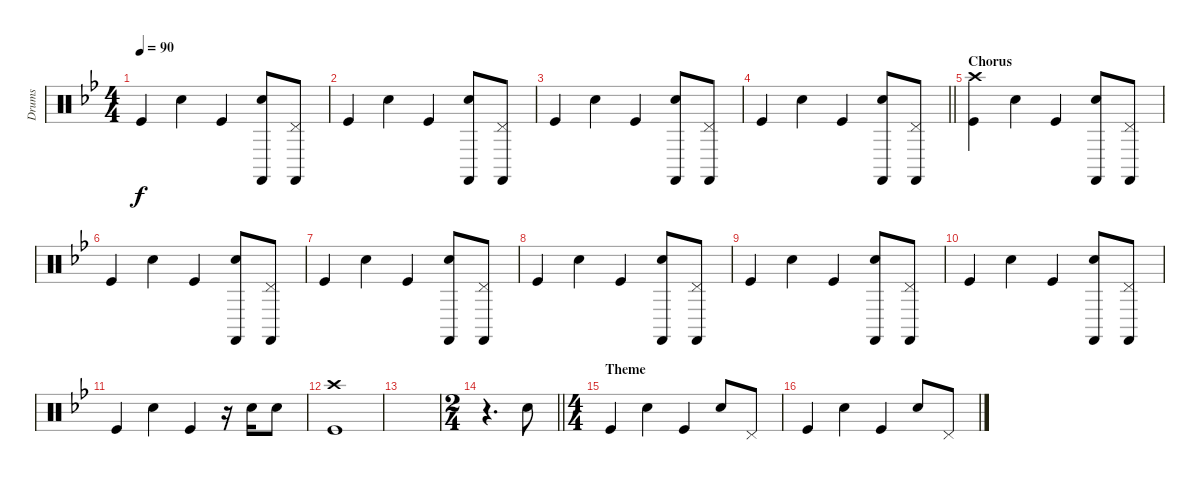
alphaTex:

\track ("Drums" "Drums") {instrument percussion}
\staff {score}
\articulation defaults
\ts (4 4)
\tempo 90
\clef neutral
\ks bb "Kick (hit)".4{dy f} "Electric Snare (hit)".4 "Kick (hit)".4
("Electric Snare (hit)" "Castanets (hit)").8 ("Castanets (hit)" "Pedal Hi-Hat (hit)").8 |
"Kick (hit)".4 "Electric Snare (hit)".4 "Kick (hit)".4 ("Electric Snare (hit)" "Castanets (hit)").8 ("Castanets (hit)" "Pedal Hi-Hat (hit)").8 |
"Kick (hit)".4 "Electric Snare (hit)".4 "Kick (hit)".4 ("Electric Snare (hit)" "Castanets (hit)").8 ("Castanets (hit)" "Pedal Hi-Hat (hit)").8 |
\barLineRight lightlight "Kick (hit)".4 "Electric Snare (hit)".4 "Kick (hit)".4
("Electric Snare (hit)" "Castanets (hit)").8 ("Castanets (hit)" "Pedal Hi-Hat (hit)").8 |
\section ("" "Chorus")
("Kick (hit)" "Crash high (hit)").4 "Electric Snare (hit)".4 "Kick (hit)".4 ("Electric Snare (hit)" "Castanets (hit)").8 ("Castanets (hit)" "Pedal Hi-Hat (hit)").8 |
"Kick (hit)".4 "Electric Snare (hit)".4 "Kick (hit)".4 ("Electric Snare (hit)" "Castanets (hit)").8 ("Castanets (hit)" "Pedal Hi-Hat (hit)").8 |
"Kick (hit)".4 "Electric Snare (hit)".4 "Kick (hit)".4 ("Electric Snare (hit)" "Castanets (hit)").8 ("Castanets (hit)" "Pedal Hi-Hat (hit)").8 |
"Kick (hit)".4 "Electric Snare (hit)".4 "Kick (hit)".4 ("Electric Snare (hit)" "Castanets (hit)").8 ("Castanets (hit)" "Pedal Hi-Hat (hit)").8 |
"Kick (hit)".4 "Electric Snare (hit)".4 "Kick (hit)".4 ("Electric Snare (hit)" "Castanets (hit)").8 ("Castanets (hit)" "Pedal Hi-Hat (hit)").8 |
"Kick (hit)".4 "Electric Snare (hit)".4 "Kick (hit)".4 ("Electric Snare (hit)" "Castanets (hit)").8 ("Castanets (hit)" "Pedal Hi-Hat (hit)").8 |
"Kick (hit)".4 "Electric Snare (hit)".4 "Kick (hit)".4 r.16 "Electric Snare (hit)".16 "Electric Snare (hit)".8 |
("Kick (hit)" "Crash high (hit)").1 |
|
\ts (2 4)
\barLineRight lightlight
r.4{d} "Electric Snare (hit)".8 |
\ts (4 4)
\section ("" "Theme")
"Kick (hit)".4 "Electric Snare (hit)".4 "Kick (hit)".4 "Electric Snare (hit)".8 "Pedal Hi-Hat (hit)".8 |
"Kick (hit)".4 "Electric Snare (hit)".4 "Kick (hit)".4 "Electric Snare (hit)".8 "Pedal Hi-Hat (hit)".8
